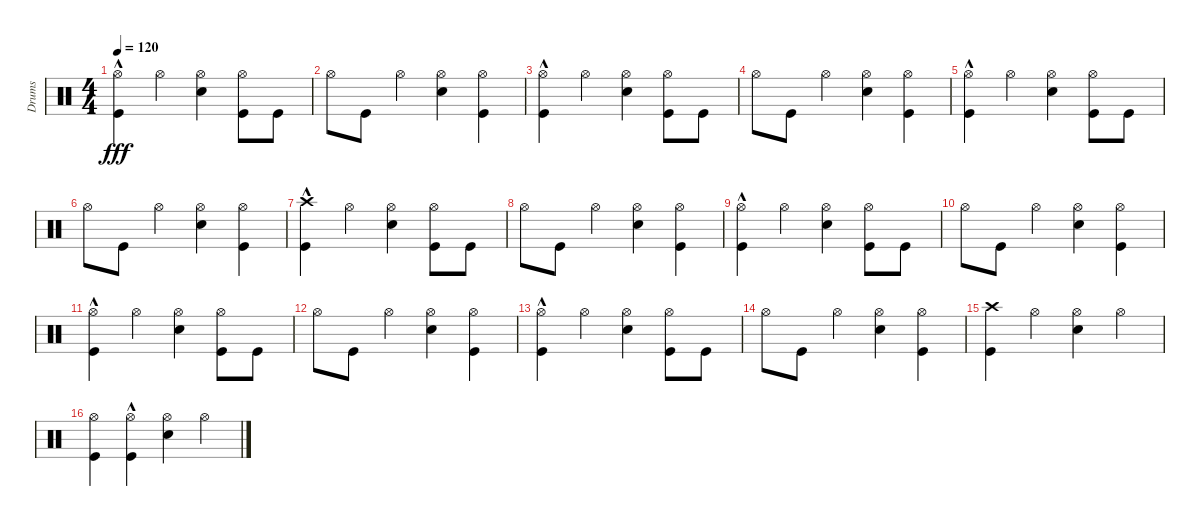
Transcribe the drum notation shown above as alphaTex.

\track ("Drums" "Drums") {instrument percussion}
\staff {score}
\articulation defaults
\ts (4 4)
\tempo 120
\clef neutral
\ks c
("Kick (hit)"{hac} "Hi-Hat (open)").4{dy fff} "Hi-Hat (open)".4 ("Snare (hit) 2" "Hi-Hat (open)").4 ("Kick (hit)" "Hi-Hat (open)").8 "Kick (hit)".8 |
"Hi-Hat (open)".8 "Kick (hit)".8 "Hi-Hat (open)".4 ("Snare (hit) 2" "Hi-Hat (open)").4 ("Kick (hit)" "Hi-Hat (open)").4 |
("Kick (hit)"{hac} "Hi-Hat (open)").4 "Hi-Hat (open)".4 ("Snare (hit) 2" "Hi-Hat (open)").4 ("Kick (hit)" "Hi-Hat (open)").8 "Kick (hit)".8 |
"Hi-Hat (open)".8 "Kick (hit)".8 "Hi-Hat (open)".4 ("Snare (hit) 2" "Hi-Hat (open)").4 ("Kick (hit)" "Hi-Hat (open)").4 |
("Kick (hit)"{hac} "Hi-Hat (open)").4 "Hi-Hat (open)".4 ("Snare (hit) 2" "Hi-Hat (open)").4 ("Kick (hit)" "Hi-Hat (open)").8 "Kick (hit)".8 |
"Hi-Hat (open)".8 "Kick (hit)".8 "Hi-Hat (open)".4 ("Snare (hit) 2" "Hi-Hat (open)").4 ("Kick (hit)" "Hi-Hat (open)").4 |
("Kick (hit)"{hac} "Crash high (hit)").4 "Hi-Hat (open)".4 ("Snare (hit) 2" "Hi-Hat (open)").4 ("Kick (hit)" "Hi-Hat (open)").8 "Kick (hit)".8 |
"Hi-Hat (open)".8 "Kick (hit)".8 "Hi-Hat (open)".4 ("Snare (hit) 2" "Hi-Hat (open)").4 ("Kick (hit)" "Hi-Hat (open)").4 |
("Kick (hit)"{hac} "Hi-Hat (open)").4 "Hi-Hat (open)".4 ("Snare (hit) 2" "Hi-Hat (open)").4 ("Kick (hit)" "Hi-Hat (open)").8 "Kick (hit)".8 |
"Hi-Hat (open)".8 "Kick (hit)".8 "Hi-Hat (open)".4 ("Snare (hit) 2" "Hi-Hat (open)").4 ("Kick (hit)" "Hi-Hat (open)").4 |
("Kick (hit)"{hac} "Hi-Hat (open)").4 "Hi-Hat (open)".4 ("Snare (hit) 2" "Hi-Hat (open)").4 ("Kick (hit)" "Hi-Hat (open)").8 "Kick (hit)".8 |
"Hi-Hat (open)".8 "Kick (hit)".8 "Hi-Hat (open)".4 ("Snare (hit) 2" "Hi-Hat (open)").4 ("Kick (hit)" "Hi-Hat (open)").4 |
("Kick (hit)"{hac} "Hi-Hat (open)").4 "Hi-Hat (open)".4 ("Snare (hit) 2" "Hi-Hat (open)").4 ("Kick (hit)" "Hi-Hat (open)").8 "Kick (hit)".8 |
"Hi-Hat (open)".8 "Kick (hit)".8 "Hi-Hat (open)".4 ("Snare (hit) 2" "Hi-Hat (open)").4 ("Kick (hit)" "Hi-Hat (open)").4 |
("Kick (hit)" "Crash high (hit)").4 "Hi-Hat (open)".4 ("Snare (hit) 2" "Hi-Hat (open)").4 "Hi-Hat (open)".4 |
("Kick (hit)" "Hi-Hat (open)").4 ("Kick (hit)"{hac} "Hi-Hat (open)").4 ("Snare (hit) 2" "Hi-Hat (open)").4 "Hi-Hat (open)".4
